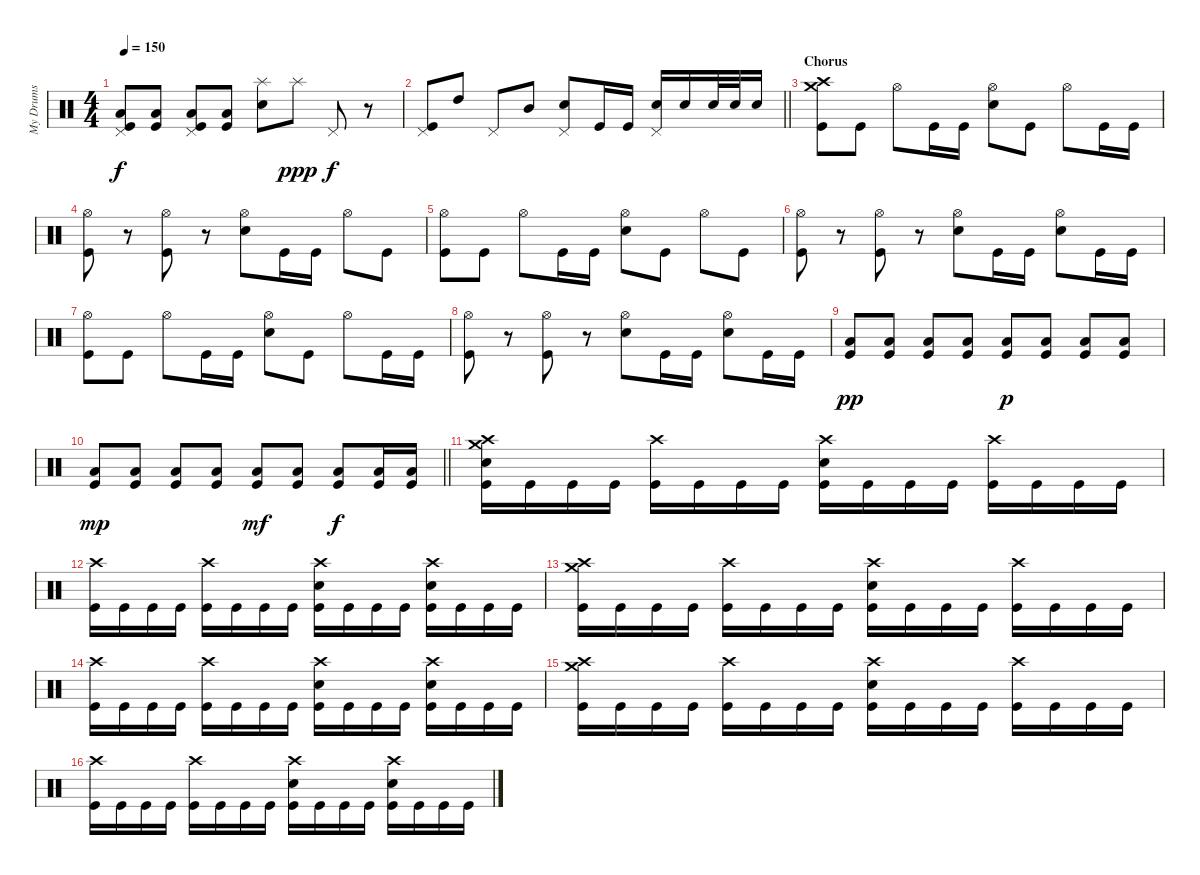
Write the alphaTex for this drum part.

\track ("My Drums" "My Drums") {instrument percussion}
\staff {score}
\articulation defaults
\ts (4 4)
\tempo 150
\clef neutral
\ks c
("Pedal Hi-Hat (hit)" "Low Floor Tom (hit)" "Kick (hit)").8{dy f} ("Low Floor Tom (hit)" "Kick (hit)").8 ("Pedal Hi-Hat (hit)" "Low Floor Tom (hit)" "Kick (hit)").8 ("Low Floor Tom (hit)" "Kick (hit)").8 ("Splash (hit)" "Snare (hit) 2").8 "Splash (hit)".8{dy ppp} "Pedal Hi-Hat (hit)".8{dy f} r.8 |
\barLineRight lightlight
("Pedal Hi-Hat (hit)" "Kick (hit)").8 "High Tom (hit)".8 "Pedal Hi-Hat (hit)".8 "Mid Tom (hit)".8 ("Pedal Hi-Hat (hit)" "Snare (hit) 2").8 "Kick (hit)".16 "Kick (hit)".16 ("Pedal Hi-Hat (hit)" "Snare (hit) 2").16 "Snare (hit) 2".16 "Snare (hit) 2".32 "Snare (hit) 2".32 "Snare (hit) 2".16 |
\section ("" "Chorus")
("Crash high (hit)" "Crash medium (hit)" "Kick (hit)").8 "Kick (hit)".8 "Hi-Hat (open)".8 "Kick (hit)".16 "Kick (hit)".16 ("Hi-Hat (open)" "Snare (hit) 2").8 "Kick (hit)".8 "Hi-Hat (open)".8 "Kick (hit)".16 "Kick (hit)".16 |
("Hi-Hat (open)" "Kick (hit)").8 r.8 ("Hi-Hat (open)" "Kick (hit)").8 r.8 ("Hi-Hat (open)" "Snare (hit) 2").8 "Kick (hit)".16 "Kick (hit)".16 "Hi-Hat (open)".8 "Kick (hit)".8 |
("Hi-Hat (open)" "Kick (hit)").8 "Kick (hit)".8 "Hi-Hat (open)".8 "Kick (hit)".16 "Kick (hit)".16 ("Hi-Hat (open)" "Snare (hit) 2").8 "Kick (hit)".8 "Hi-Hat (open)".8 "Kick (hit)".8 |
("Hi-Hat (open)" "Kick (hit)").8 r.8 ("Hi-Hat (open)" "Kick (hit)").8 r.8 ("Hi-Hat (open)" "Snare (hit) 2").8 "Kick (hit)".16 "Kick (hit)".16 ("Hi-Hat (open)" "Snare (hit) 2").8 "Kick (hit)".16 "Kick (hit)".16 |
("Hi-Hat (open)" "Kick (hit)").8 "Kick (hit)".8 "Hi-Hat (open)".8 "Kick (hit)".16 "Kick (hit)".16 ("Hi-Hat (open)" "Snare (hit) 2").8 "Kick (hit)".8 "Hi-Hat (open)".8 "Kick (hit)".16 "Kick (hit)".16 |
("Hi-Hat (open)" "Kick (hit)").8 r.8 ("Hi-Hat (open)" "Kick (hit)").8 r.8 ("Hi-Hat (open)" "Snare (hit) 2").8 "Kick (hit)".16 "Kick (hit)".16 ("Hi-Hat (open)" "Snare (hit) 2").8 "Kick (hit)".16 "Kick (hit)".16 |
("Low Floor Tom (hit)" "Kick (hit)").8{dy pp} ("Low Floor Tom (hit)" "Kick (hit)").8 ("Low Floor Tom (hit)" "Kick (hit)").8 ("Low Floor Tom (hit)" "Kick (hit)").8 ("Low Floor Tom (hit)" "Kick (hit)").8{dy p} ("Low Floor Tom (hit)" "Kick (hit)").8 ("Low Floor Tom (hit)" "Kick (hit)").8 ("Low Floor Tom (hit)" "Kick (hit)").8 |
\barLineRight lightlight
("Low Floor Tom (hit)" "Kick (hit)").8{dy mp} ("Low Floor Tom (hit)" "Kick (hit)").8 ("Low Floor Tom (hit)" "Kick (hit)").8 ("Low Floor Tom (hit)" "Kick (hit)").8 ("Low Floor Tom (hit)" "Kick (hit)").8{dy mf} ("Low Floor Tom (hit)" "Kick (hit)").8 ("Low Floor Tom (hit)" "Kick (hit)").8{dy f} ("Low Floor Tom (hit)" "Kick (hit)").16 ("Low Floor Tom (hit)" "Kick (hit)").16 |
\section ("" "")
("Crash high (hit)" "Crash medium (hit)" "Snare (hit) 2" "Kick (hit)").16 "Kick (hit)".16 "Kick (hit)".16 "Kick (hit)".16 ("Crash high (hit)" "Kick (hit)").16 "Kick (hit)".16 "Kick (hit)".16 "Kick (hit)".16 ("Crash high (hit)" "Snare (hit) 2" "Kick (hit)").16 "Kick (hit)".16 "Kick (hit)".16 "Kick (hit)".16 ("Crash high (hit)" "Kick (hit)").16 "Kick (hit)".16 "Kick (hit)".16 "Kick (hit)".16 |
("Crash high (hit)" "Kick (hit)").16 "Kick (hit)".16 "Kick (hit)".16 "Kick (hit)".16 ("Crash high (hit)" "Kick (hit)").16 "Kick (hit)".16 "Kick (hit)".16 "Kick (hit)".16 ("Crash high (hit)" "Snare (hit) 2" "Kick (hit)").16 "Kick (hit)".16 "Kick (hit)".16 "Kick (hit)".16 ("Crash high (hit)" "Snare (hit) 2" "Kick (hit)").16 "Kick (hit)".16 "Kick (hit)".16 "Kick (hit)".16 |
("Crash high (hit)" "Crash medium (hit)" "Kick (hit)").16 "Kick (hit)".16 "Kick (hit)".16 "Kick (hit)".16 ("Crash high (hit)" "Kick (hit)").16 "Kick (hit)".16 "Kick (hit)".16 "Kick (hit)".16 ("Crash high (hit)" "Snare (hit) 2" "Kick (hit)").16 "Kick (hit)".16 "Kick (hit)".16 "Kick (hit)".16 ("Crash high (hit)" "Kick (hit)").16 "Kick (hit)".16 "Kick (hit)".16 "Kick (hit)".16 |
("Crash high (hit)" "Kick (hit)").16 "Kick (hit)".16 "Kick (hit)".16 "Kick (hit)".16 ("Crash high (hit)" "Kick (hit)").16 "Kick (hit)".16 "Kick (hit)".16 "Kick (hit)".16 ("Crash high (hit)" "Snare (hit) 2" "Kick (hit)").16 "Kick (hit)".16 "Kick (hit)".16 "Kick (hit)".16 ("Crash high (hit)" "Snare (hit) 2" "Kick (hit)").16 "Kick (hit)".16 "Kick (hit)".16 "Kick (hit)".16 |
("Crash high (hit)" "Crash medium (hit)" "Kick (hit)").16 "Kick (hit)".16 "Kick (hit)".16 "Kick (hit)".16 ("Crash high (hit)" "Kick (hit)").16 "Kick (hit)".16 "Kick (hit)".16 "Kick (hit)".16 ("Crash high (hit)" "Snare (hit) 2" "Kick (hit)").16 "Kick (hit)".16 "Kick (hit)".16 "Kick (hit)".16 ("Crash high (hit)" "Kick (hit)").16 "Kick (hit)".16 "Kick (hit)".16 "Kick (hit)".16 |
("Crash high (hit)" "Kick (hit)").16 "Kick (hit)".16 "Kick (hit)".16 "Kick (hit)".16 ("Crash high (hit)" "Kick (hit)").16 "Kick (hit)".16 "Kick (hit)".16 "Kick (hit)".16 ("Crash high (hit)" "Snare (hit) 2" "Kick (hit)").16 "Kick (hit)".16 "Kick (hit)".16 "Kick (hit)".16 ("Crash high (hit)" "Snare (hit) 2" "Kick (hit)").16 "Kick (hit)".16 "Kick (hit)".16 "Kick (hit)".16
